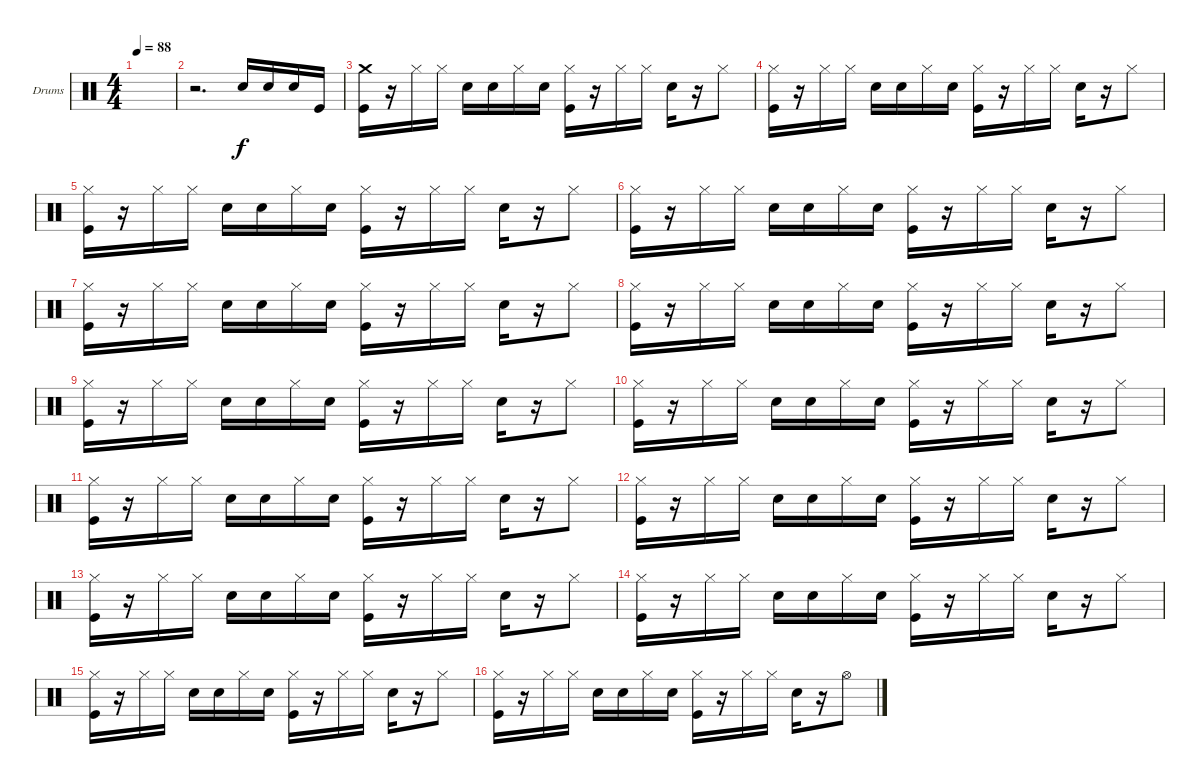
\defaultSystemsLayout 4
\bracketExtendMode groupsimilarinstruments
\firstSystemTrackNameOrientation horizontal
\otherSystemsTrackNameOrientation horizontal
\track ("Drumkit" "Drums") {instrument percussion}
\staff {score}
\articulation defaults
\ts (4 4)
\tempo 88
\clef neutral
\ks c
|
r.2{d} "Snare (hit) 2".16 "Snare (hit) 2".16 "Snare (hit) 2".16 "Kick (hit)".16 |
("Crash medium (hit)" "Kick (hit)").16 r.16 "Hi-Hat (closed)".16 "Hi-Hat (closed)".16 "Snare (hit) 2".16 "Snare (hit) 2".16 "Hi-Hat (closed)".16 "Snare (hit) 2".16 ("Hi-Hat (closed)" "Kick (hit)").16 r.16 "Hi-Hat (closed)".16 "Hi-Hat (closed)".16 "Snare (hit) 2".16 r.16 "Hi-Hat (closed)".8 |
("Hi-Hat (closed)" "Kick (hit)").16 r.16 "Hi-Hat (closed)".16 "Hi-Hat (closed)".16 "Snare (hit) 2".16 "Snare (hit) 2".16 "Hi-Hat (closed)".16 "Snare (hit) 2".16 ("Hi-Hat (closed)" "Kick (hit)").16 r.16 "Hi-Hat (closed)".16 "Hi-Hat (closed)".16 "Snare (hit) 2".16 r.16 "Hi-Hat (closed)".8 |
("Hi-Hat (closed)" "Kick (hit)").16 r.16 "Hi-Hat (closed)".16 "Hi-Hat (closed)".16 "Snare (hit) 2".16 "Snare (hit) 2".16 "Hi-Hat (closed)".16 "Snare (hit) 2".16 ("Hi-Hat (closed)" "Kick (hit)").16 r.16 "Hi-Hat (closed)".16 "Hi-Hat (closed)".16 "Snare (hit) 2".16 r.16 "Hi-Hat (closed)".8 |
("Hi-Hat (closed)" "Kick (hit)").16 r.16 "Hi-Hat (closed)".16 "Hi-Hat (closed)".16 "Snare (hit) 2".16 "Snare (hit) 2".16 "Hi-Hat (closed)".16 "Snare (hit) 2".16 ("Hi-Hat (closed)" "Kick (hit)").16 r.16 "Hi-Hat (closed)".16 "Hi-Hat (closed)".16 "Snare (hit) 2".16 r.16 "Hi-Hat (closed)".8 |
("Hi-Hat (closed)" "Kick (hit)").16 r.16 "Hi-Hat (closed)".16 "Hi-Hat (closed)".16 "Snare (hit) 2".16 "Snare (hit) 2".16 "Hi-Hat (closed)".16 "Snare (hit) 2".16 ("Hi-Hat (closed)" "Kick (hit)").16 r.16 "Hi-Hat (closed)".16 "Hi-Hat (closed)".16 "Snare (hit) 2".16 r.16 "Hi-Hat (closed)".8 |
("Hi-Hat (closed)" "Kick (hit)").16 r.16 "Hi-Hat (closed)".16 "Hi-Hat (closed)".16 "Snare (hit) 2".16 "Snare (hit) 2".16 "Hi-Hat (closed)".16 "Snare (hit) 2".16 ("Hi-Hat (closed)" "Kick (hit)").16 r.16 "Hi-Hat (closed)".16 "Hi-Hat (closed)".16 "Snare (hit) 2".16 r.16 "Hi-Hat (closed)".8 |
("Hi-Hat (closed)" "Kick (hit)").16 r.16 "Hi-Hat (closed)".16 "Hi-Hat (closed)".16 "Snare (hit) 2".16 "Snare (hit) 2".16 "Hi-Hat (closed)".16 "Snare (hit) 2".16 ("Hi-Hat (closed)" "Kick (hit)").16 r.16 "Hi-Hat (closed)".16 "Hi-Hat (closed)".16 "Snare (hit) 2".16 r.16 "Hi-Hat (closed)".8 |
("Hi-Hat (closed)" "Kick (hit)").16 r.16 "Hi-Hat (closed)".16 "Hi-Hat (closed)".16 "Snare (hit) 2".16 "Snare (hit) 2".16 "Hi-Hat (closed)".16 "Snare (hit) 2".16 ("Hi-Hat (closed)" "Kick (hit)").16 r.16 "Hi-Hat (closed)".16 "Hi-Hat (closed)".16 "Snare (hit) 2".16 r.16 "Hi-Hat (closed)".8 |
("Hi-Hat (closed)" "Kick (hit)").16 r.16 "Hi-Hat (closed)".16 "Hi-Hat (closed)".16 "Snare (hit) 2".16 "Snare (hit) 2".16 "Hi-Hat (closed)".16 "Snare (hit) 2".16 ("Hi-Hat (closed)" "Kick (hit)").16 r.16 "Hi-Hat (closed)".16 "Hi-Hat (closed)".16 "Snare (hit) 2".16 r.16 "Hi-Hat (closed)".8 |
("Hi-Hat (closed)" "Kick (hit)").16 r.16 "Hi-Hat (closed)".16 "Hi-Hat (closed)".16 "Snare (hit) 2".16 "Snare (hit) 2".16 "Hi-Hat (closed)".16 "Snare (hit) 2".16 ("Hi-Hat (closed)" "Kick (hit)").16 r.16 "Hi-Hat (closed)".16 "Hi-Hat (closed)".16 "Snare (hit) 2".16 r.16 "Hi-Hat (closed)".8 |
("Hi-Hat (closed)" "Kick (hit)").16 r.16 "Hi-Hat (closed)".16 "Hi-Hat (closed)".16 "Snare (hit) 2".16 "Snare (hit) 2".16 "Hi-Hat (closed)".16 "Snare (hit) 2".16 ("Hi-Hat (closed)" "Kick (hit)").16 r.16 "Hi-Hat (closed)".16 "Hi-Hat (closed)".16 "Snare (hit) 2".16 r.16 "Hi-Hat (closed)".8 |
("Hi-Hat (closed)" "Kick (hit)").16 r.16 "Hi-Hat (closed)".16 "Hi-Hat (closed)".16 "Snare (hit) 2".16 "Snare (hit) 2".16 "Hi-Hat (closed)".16 "Snare (hit) 2".16 ("Hi-Hat (closed)" "Kick (hit)").16 r.16 "Hi-Hat (closed)".16 "Hi-Hat (closed)".16 "Snare (hit) 2".16 r.16 "Hi-Hat (closed)".8 |
("Hi-Hat (closed)" "Kick (hit)").16 r.16 "Hi-Hat (closed)".16 "Hi-Hat (closed)".16 "Snare (hit) 2".16 "Snare (hit) 2".16 "Hi-Hat (closed)".16 "Snare (hit) 2".16 ("Hi-Hat (closed)" "Kick (hit)").16 r.16 "Hi-Hat (closed)".16 "Hi-Hat (closed)".16 "Snare (hit) 2".16 r.16 "Hi-Hat (closed)".8 |
("Hi-Hat (closed)" "Kick (hit)").16 r.16 "Hi-Hat (closed)".16 "Hi-Hat (closed)".16 "Snare (hit) 2".16 "Snare (hit) 2".16 "Hi-Hat (closed)".16 "Snare (hit) 2".16 ("Hi-Hat (closed)" "Kick (hit)").16 r.16 "Hi-Hat (closed)".16 "Hi-Hat (closed)".16 "Snare (hit) 2".16 r.16 "Hi-Hat (open)".8
